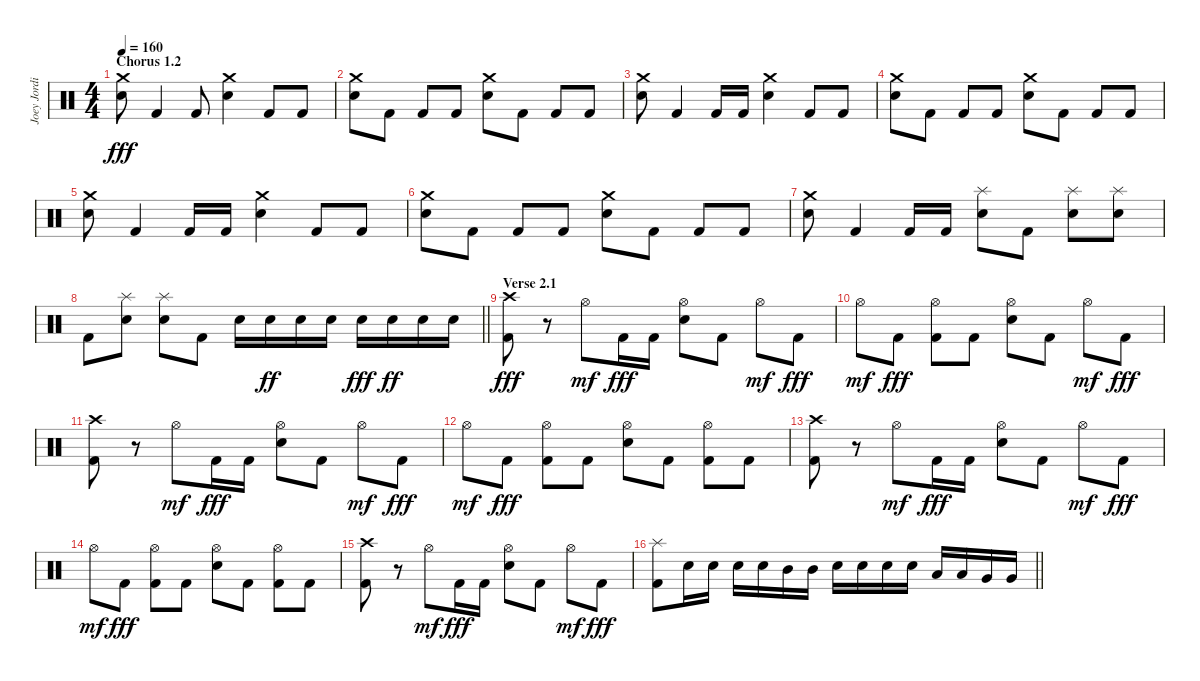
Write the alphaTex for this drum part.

\track ("Joey Jordison" "Joey Jordi") {instrument percussion}
\staff {score}
\articulation defaults
\ts (4 4)
\section ("" "Chorus 1.2")
\tempo 160
\clef neutral
\ks c
("Crash medium (hit)" "Electric Snare (hit)").8{dy fff} "Kick (hit) 2".4 "Kick (hit) 2".8 ("Crash medium (hit)" "Electric Snare (hit)").4 "Kick (hit) 2".8 "Kick (hit) 2".8 |
("Crash medium (hit)" "Electric Snare (hit)").8 "Kick (hit) 2".8 "Kick (hit) 2".8 "Kick (hit) 2".8 ("Crash medium (hit)" "Electric Snare (hit)").8 "Kick (hit) 2".8 "Kick (hit) 2".8 "Kick (hit) 2".8 |
("Crash medium (hit)" "Electric Snare (hit)").8 "Kick (hit) 2".4 "Kick (hit) 2".16 "Kick (hit) 2".16 ("Crash medium (hit)" "Electric Snare (hit)").4 "Kick (hit) 2".8 "Kick (hit) 2".8 |
("Crash medium (hit)" "Electric Snare (hit)").8 "Kick (hit) 2".8 "Kick (hit) 2".8 "Kick (hit) 2".8 ("Crash medium (hit)" "Electric Snare (hit)").8 "Kick (hit) 2".8 "Kick (hit) 2".8 "Kick (hit) 2".8 |
("Crash medium (hit)" "Electric Snare (hit)").8 "Kick (hit) 2".4 "Kick (hit) 2".16 "Kick (hit) 2".16 ("Crash medium (hit)" "Electric Snare (hit)").4 "Kick (hit) 2".8 "Kick (hit) 2".8 |
("Crash medium (hit)" "Electric Snare (hit)").8 "Kick (hit) 2".8 "Kick (hit) 2".8 "Kick (hit) 2".8 ("Crash medium (hit)" "Electric Snare (hit)").8 "Kick (hit) 2".8 "Kick (hit) 2".8 "Kick (hit) 2".8 |
("Crash medium (hit)" "Electric Snare (hit)").8 "Kick (hit) 2".4 "Kick (hit) 2".16 "Kick (hit) 2".16 ("Splash (hit)" "Electric Snare (hit)").8 "Kick (hit) 2".8 ("Splash (hit)" "Electric Snare (hit)").8 ("Splash (hit)" "Electric Snare (hit)").8 |
\barLineRight lightlight "Kick (hit) 2".8
("Splash (hit)" "Electric Snare (hit)").8 ("Splash (hit)" "Electric Snare (hit)").8 "Kick (hit) 2".8 "Electric Snare (hit)".16 "Electric Snare (hit)".16{dy ff} "Electric Snare (hit)".16 "Electric Snare (hit)".16 "Electric Snare (hit)".16{dy fff} "Electric Snare (hit)".16{dy ff} "Electric Snare (hit)".16 "Electric Snare (hit)".16 |
\section ("" "Verse 2.1")
("Crash high (hit)" "Kick (hit) 2").8{dy fff} r.8 "Hi-Hat (open)".8{dy mf} "Kick (hit) 2".16{dy fff} "Kick (hit) 2".16 ("Hi-Hat (open)" "Electric Snare (hit)").8 "Kick (hit) 2".8 "Hi-Hat (open)".8{dy mf} "Kick (hit) 2".8{dy fff} |
"Hi-Hat (open)".8{dy mf} "Kick (hit) 2".8{dy fff} ("Hi-Hat (open)" "Kick (hit) 2").8 "Kick (hit) 2".8 ("Hi-Hat (open)" "Electric Snare (hit)").8 "Kick (hit) 2".8 "Hi-Hat (open)".8{dy mf} "Kick (hit) 2".8{dy fff} |
("Crash high (hit)" "Kick (hit) 2").8 r.8 "Hi-Hat (open)".8{dy mf} "Kick (hit) 2".16{dy fff} "Kick (hit) 2".16 ("Hi-Hat (open)" "Electric Snare (hit)").8 "Kick (hit) 2".8 "Hi-Hat (open)".8{dy mf} "Kick (hit) 2".8{dy fff} |
"Hi-Hat (open)".8{dy mf} "Kick (hit) 2".8{dy fff} ("Hi-Hat (open)" "Kick (hit) 2").8 "Kick (hit) 2".8 ("Hi-Hat (open)" "Electric Snare (hit)").8 "Kick (hit) 2".8 ("Hi-Hat (open)" "Kick (hit) 2").8 "Kick (hit) 2".8 |
("Crash high (hit)" "Kick (hit) 2").8 r.8 "Hi-Hat (open)".8{dy mf} "Kick (hit) 2".16{dy fff} "Kick (hit) 2".16 ("Hi-Hat (open)" "Electric Snare (hit)").8 "Kick (hit) 2".8 "Hi-Hat (open)".8{dy mf} "Kick (hit) 2".8{dy fff} |
"Hi-Hat (open)".8{dy mf} "Kick (hit) 2".8{dy fff} ("Hi-Hat (open)" "Kick (hit) 2").8 "Kick (hit) 2".8 ("Hi-Hat (open)" "Electric Snare (hit)").8 "Kick (hit) 2".8 ("Hi-Hat (open)" "Kick (hit) 2").8 "Kick (hit) 2".8 |
("Crash high (hit)" "Kick (hit) 2").8 r.8 "Hi-Hat (open)".8{dy mf} "Kick (hit) 2".16{dy fff} "Kick (hit) 2".16 ("Hi-Hat (open)" "Electric Snare (hit)").8 "Kick (hit) 2".8 "Hi-Hat (open)".8{dy mf} "Kick (hit) 2".8{dy fff} |
\barLineRight lightlight
("Splash (hit)" "Kick (hit) 2").8 "Electric Snare (hit)".16 "Electric Snare (hit)".16 "Electric Snare (hit)".16 "Electric Snare (hit)".16 "Mid Tom (hit)".16 "Mid Tom (hit)".16 "Electric Snare (hit)".16 "Electric Snare (hit)".16 "Electric Snare (hit)".16 "Electric Snare (hit)".16 "Low Tom (hit)".16 "Low Tom (hit)".16 "Very Low Tom (hit)".16 "Very Low Tom (hit)".16
